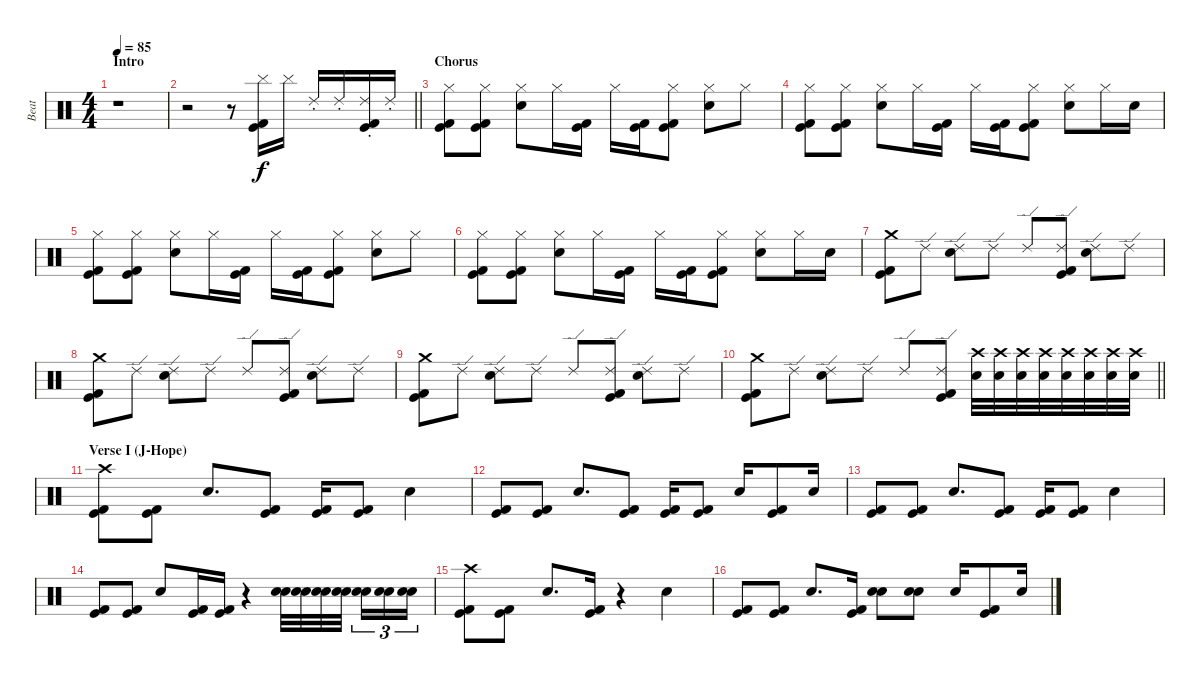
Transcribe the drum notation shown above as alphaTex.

\track ("Beat" "Beat") {instrument percussion}
\staff {score}
\articulation defaults
\ts (4 4)
\section ("" "Intro")
\tempo 85
\clef neutral
\ks c
r.1{dy f} |
\barLineRight lightlight
r.2 r.8 ("Cymbal (hit)" "Kick (hit)" "Kick (hit) 2").16 "Cymbal (hit)".16 "Ride (choke) 2".16 "Ride (choke) 2".16 ("Ride (choke) 2" "Kick (hit)" "Kick (hit) 2").16 "Ride (choke) 2".16 |
\section ("" "Chorus")
("Hi-Hat (closed)" "Kick (hit)" "Kick (hit) 2").8 ("Hi-Hat (closed)" "Kick (hit)" "Kick (hit) 2").8 ("Hi-Hat (closed)" "Snare (hit) 2").8 "Hi-Hat (closed)".16 ("Kick (hit)" "Kick (hit) 2").16 "Hi-Hat (closed)".16 ("Kick (hit)" "Kick (hit) 2").16 ("Hi-Hat (closed)" "Kick (hit)" "Kick (hit) 2").8 ("Hi-Hat (closed)" "Snare (hit) 2").8 "Hi-Hat (closed)".8 |
("Hi-Hat (closed)" "Kick (hit)" "Kick (hit) 2").8 ("Hi-Hat (closed)" "Kick (hit)" "Kick (hit) 2").8 ("Hi-Hat (closed)" "Snare (hit) 2").8 "Hi-Hat (closed)".16 ("Kick (hit)" "Kick (hit) 2").16 "Hi-Hat (closed)".16 ("Kick (hit)" "Kick (hit) 2").16 ("Hi-Hat (closed)" "Kick (hit)" "Kick (hit) 2").8 ("Hi-Hat (closed)" "Snare (hit) 2").8 "Hi-Hat (closed)".16 "Snare (hit) 2".16 |
("Hi-Hat (closed)" "Kick (hit)" "Kick (hit) 2").8 ("Hi-Hat (closed)" "Kick (hit)" "Kick (hit) 2").8 ("Hi-Hat (closed)" "Snare (hit) 2").8 "Hi-Hat (closed)".16 ("Kick (hit)" "Kick (hit) 2").16 "Hi-Hat (closed)".16 ("Kick (hit)" "Kick (hit) 2").16 ("Hi-Hat (closed)" "Kick (hit)" "Kick (hit) 2").8 ("Hi-Hat (closed)" "Snare (hit) 2").8 "Hi-Hat (closed)".8 |
("Hi-Hat (closed)" "Kick (hit)" "Kick (hit) 2").8 ("Hi-Hat (closed)" "Kick (hit)" "Kick (hit) 2").8 ("Hi-Hat (closed)" "Snare (hit) 2").8 "Hi-Hat (closed)".16 ("Kick (hit)" "Kick (hit) 2").16 "Hi-Hat (closed)".16 ("Kick (hit)" "Kick (hit) 2").16 ("Hi-Hat (closed)" "Kick (hit)" "Kick (hit) 2").8 ("Hi-Hat (closed)" "Snare (hit) 2").8 "Hi-Hat (closed)".16 "Snare (hit) 2".16 |
("Crash medium (hit)" "Kick (hit)" "Kick (hit) 2").8 "Ride (edge) 2".8 ("Ride (edge) 2" "Snare (hit) 2").8 "Ride (edge) 2".8 "Ride (edge) 2".8 ("Ride (edge) 2" "Kick (hit)" "Kick (hit) 2").8 ("Ride (edge) 2" "Snare (hit) 2").8 "Ride (edge) 2".8 |
("Crash medium (hit)" "Kick (hit)" "Kick (hit) 2").8 "Ride (edge) 2".8 ("Ride (edge) 2" "Snare (hit) 2").8 "Ride (edge) 2".8 "Ride (edge) 2".8 ("Ride (edge) 2" "Kick (hit)" "Kick (hit) 2").8 ("Ride (edge) 2" "Snare (hit) 2").8 "Ride (edge) 2".8 |
("Crash medium (hit)" "Kick (hit)" "Kick (hit) 2").8 "Ride (edge) 2".8 ("Ride (edge) 2" "Snare (hit) 2").8 "Ride (edge) 2".8 "Ride (edge) 2".8 ("Ride (edge) 2" "Kick (hit)" "Kick (hit) 2").8 ("Ride (edge) 2" "Snare (hit) 2").8 "Ride (edge) 2".8 |
\barLineRight lightlight
("Crash medium (hit)" "Kick (hit)" "Kick (hit) 2").8 "Ride (edge) 2".8 ("Ride (edge) 2" "Snare (hit) 2").8 "Ride (edge) 2".8 "Ride (edge) 2".8 ("Ride (edge) 2" "Kick (hit)" "Kick (hit) 2").8 ("Crash high (hit)" "Snare (hit) 2").32 ("Crash high (hit)" "Snare (hit) 2").32 ("Crash high (hit)" "Snare (hit) 2").32 ("Crash high (hit)" "Snare (hit) 2").32 ("Crash high (hit)" "Snare (hit) 2").32 ("Crash high (hit)" "Snare (hit) 2").32 ("Crash high (hit)" "Snare (hit) 2").32 ("Crash high (hit)" "Snare (hit) 2").32 |
\section ("" "Verse I (J-Hope)")
("Crash high (hit)" "Kick (hit)" "Kick (hit) 2").8 ("Kick (hit)" "Kick (hit) 2").8 "Snare (hit) 2".8{d} ("Kick (hit)" "Kick (hit) 2").8 ("Kick (hit)" "Kick (hit) 2").16 ("Kick (hit)" "Kick (hit) 2").8 "Snare (hit) 2".4 |
("Kick (hit)" "Kick (hit) 2").8 ("Kick (hit)" "Kick (hit) 2").8 "Snare (hit) 2".8{d} ("Kick (hit)" "Kick (hit) 2").8 ("Kick (hit)" "Kick (hit) 2").16 ("Kick (hit)" "Kick (hit) 2").8 "Snare (hit) 2".16 ("Kick (hit)" "Kick (hit) 2").8 "Snare (hit) 2".16 |
("Kick (hit)" "Kick (hit) 2").8 ("Kick (hit)" "Kick (hit) 2").8 "Snare (hit) 2".8{d} ("Kick (hit)" "Kick (hit) 2").8 ("Kick (hit)" "Kick (hit) 2").16 ("Kick (hit)" "Kick (hit) 2").8 "Snare (hit) 2".4 |
("Kick (hit)" "Kick (hit) 2").8 ("Kick (hit)" "Kick (hit) 2").8 "Snare (hit) 2".8 ("Kick (hit)" "Kick (hit) 2").16 ("Kick (hit)" "Kick (hit) 2").16 r.4 ("Hand Clap (hit)" "Snare (hit) 2").32 ("Hand Clap (hit)" "Snare (hit) 2").32 ("Hand Clap (hit)" "Snare (hit) 2").32 ("Hand Clap (hit)" "Snare (hit) 2").32{beam splitsecondary} ("Hand Clap (hit)" "Snare (hit) 2").16{tu (3 2)} ("Hand Clap (hit)" "Snare (hit) 2").16{tu (3 2)} ("Hand Clap (hit)" "Snare (hit) 2").16{tu (3 2)} |
("Crash high (hit)" "Kick (hit)" "Kick (hit) 2").8 ("Kick (hit)" "Kick (hit) 2").8 "Snare (hit) 2".8{d} ("Kick (hit)" "Kick (hit) 2").16 r.4 "Snare (hit) 2".4 |
("Kick (hit)" "Kick (hit) 2").8 ("Kick (hit)" "Kick (hit) 2").8 "Snare (hit) 2".8{d} ("Kick (hit)" "Kick (hit) 2").16 ("Hand Clap (hit)" "Hand Clap (hit)").8 ("Hand Clap (hit)" "Hand Clap (hit)").8 "Snare (hit) 2".16 ("Kick (hit)" "Kick (hit) 2").8 "Snare (hit) 2".16
